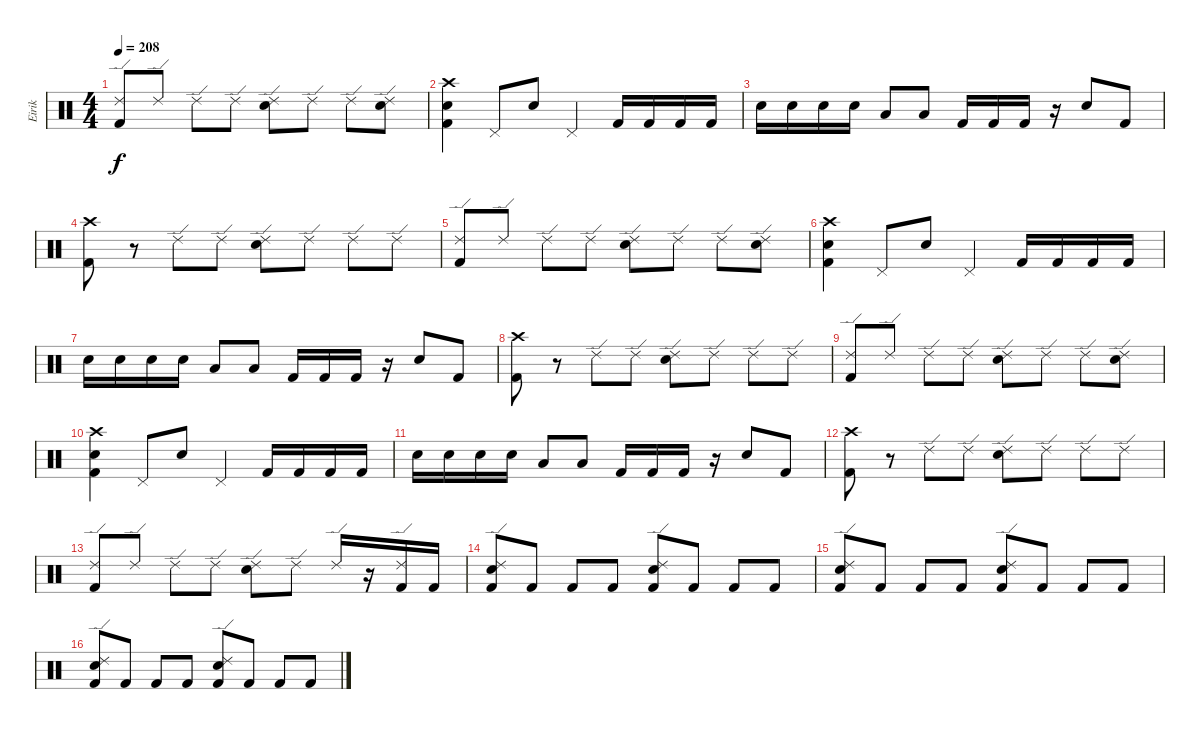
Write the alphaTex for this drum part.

\track ("Eirik" "Eirik") {instrument percussion}
\staff {score}
\articulation defaults
\ts (4 4)
\tempo 208
\clef neutral
\ks c
("Ride (edge) 2" "Kick (hit) 2").8{dy f} "Ride (edge) 2".8 "Ride (edge) 2".8 "Ride (edge) 2".8 ("Ride (edge) 2" "Snare (hit) 2").8 "Ride (edge) 2".8 "Ride (edge) 2".8 ("Ride (edge) 2" "Snare (hit) 2").8 |
("Crash high (hit)" "Snare (hit) 2" "Kick (hit) 2").4 "Pedal Hi-Hat (hit)".8 "Snare (hit) 2".8 "Pedal Hi-Hat (hit)".4 "Kick (hit) 2".16 "Kick (hit) 2".16 "Kick (hit) 2".16 "Kick (hit) 2".16 |
"Snare (hit) 2".16 "Snare (hit) 2".16 "Snare (hit) 2".16 "Snare (hit) 2".16 "Low Tom (hit)".8 "Low Tom (hit)".8 "Kick (hit) 2".16 "Kick (hit) 2".16 "Kick (hit) 2".16 r.16 "Snare (hit) 2".8 "Kick (hit) 2".8 |
("Crash high (hit)" "Kick (hit) 2").8 r.8 "Ride (edge) 2".8 "Ride (edge) 2".8 ("Ride (edge) 2" "Snare (hit) 2").8 "Ride (edge) 2".8 "Ride (edge) 2".8 "Ride (edge) 2".8 |
("Ride (edge) 2" "Kick (hit) 2").8 "Ride (edge) 2".8 "Ride (edge) 2".8 "Ride (edge) 2".8 ("Ride (edge) 2" "Snare (hit) 2").8 "Ride (edge) 2".8 "Ride (edge) 2".8 ("Ride (edge) 2" "Snare (hit) 2").8 |
("Crash high (hit)" "Snare (hit) 2" "Kick (hit) 2").4 "Pedal Hi-Hat (hit)".8 "Snare (hit) 2".8 "Pedal Hi-Hat (hit)".4 "Kick (hit) 2".16 "Kick (hit) 2".16 "Kick (hit) 2".16 "Kick (hit) 2".16 |
"Snare (hit) 2".16 "Snare (hit) 2".16 "Snare (hit) 2".16 "Snare (hit) 2".16 "Low Tom (hit)".8 "Low Tom (hit)".8 "Kick (hit) 2".16 "Kick (hit) 2".16 "Kick (hit) 2".16 r.16 "Snare (hit) 2".8 "Kick (hit) 2".8 |
("Crash high (hit)" "Kick (hit) 2").8 r.8 "Ride (edge) 2".8 "Ride (edge) 2".8 ("Ride (edge) 2" "Snare (hit) 2").8 "Ride (edge) 2".8 "Ride (edge) 2".8 "Ride (edge) 2".8 |
("Ride (edge) 2" "Kick (hit) 2").8 "Ride (edge) 2".8 "Ride (edge) 2".8 "Ride (edge) 2".8 ("Ride (edge) 2" "Snare (hit) 2").8 "Ride (edge) 2".8 "Ride (edge) 2".8 ("Ride (edge) 2" "Snare (hit) 2").8 |
("Crash high (hit)" "Snare (hit) 2" "Kick (hit) 2").4 "Pedal Hi-Hat (hit)".8 "Snare (hit) 2".8 "Pedal Hi-Hat (hit)".4 "Kick (hit) 2".16 "Kick (hit) 2".16 "Kick (hit) 2".16 "Kick (hit) 2".16 |
"Snare (hit) 2".16 "Snare (hit) 2".16 "Snare (hit) 2".16 "Snare (hit) 2".16 "Low Tom (hit)".8 "Low Tom (hit)".8 "Kick (hit) 2".16 "Kick (hit) 2".16 "Kick (hit) 2".16 r.16 "Snare (hit) 2".8 "Kick (hit) 2".8 |
("Crash high (hit)" "Kick (hit) 2").8 r.8 "Ride (edge) 2".8 "Ride (edge) 2".8 ("Ride (edge) 2" "Snare (hit) 2").8 "Ride (edge) 2".8 "Ride (edge) 2".8 "Ride (edge) 2".8 |
("Ride (edge) 2" "Kick (hit) 2").8 "Ride (edge) 2".8 "Ride (edge) 2".8 "Ride (edge) 2".8 ("Ride (edge) 2" "Snare (hit) 2").8 "Ride (edge) 2".8 "Ride (edge) 2".16 r.16 ("Ride (edge) 2" "Kick (hit) 2").16 "Kick (hit) 2".16 |
("Ride (edge) 2" "Snare (hit) 2" "Kick (hit) 2").8 "Kick (hit) 2".8 "Kick (hit) 2".8 "Kick (hit) 2".8 ("Ride (edge) 2" "Snare (hit) 2" "Kick (hit) 2").8 "Kick (hit) 2".8 "Kick (hit) 2".8 "Kick (hit) 2".8 |
("Ride (edge) 2" "Snare (hit) 2" "Kick (hit) 2").8 "Kick (hit) 2".8 "Kick (hit) 2".8 "Kick (hit) 2".8 ("Ride (edge) 2" "Snare (hit) 2" "Kick (hit) 2").8 "Kick (hit) 2".8 "Kick (hit) 2".8 "Kick (hit) 2".8 |
("Ride (edge) 2" "Snare (hit) 2" "Kick (hit) 2").8 "Kick (hit) 2".8 "Kick (hit) 2".8 "Kick (hit) 2".8 ("Ride (edge) 2" "Snare (hit) 2" "Kick (hit) 2").8 "Kick (hit) 2".8 "Kick (hit) 2".8 "Kick (hit) 2".8
